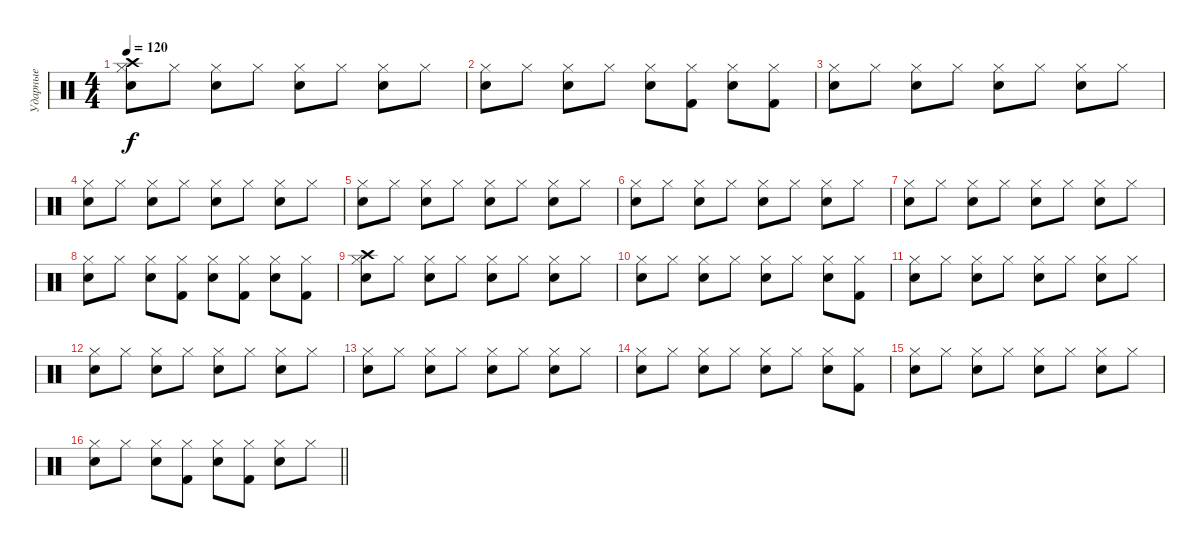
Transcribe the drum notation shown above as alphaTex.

\track ("Ударные" "Ударные") {instrument percussion}
\staff {score}
\articulation defaults
\ts (4 4)
\tempo 120
\clef neutral
\ks c
("Hi-Hat (closed)" "Crash high (hit)" "Snare (hit) 2").8{dy f} "Hi-Hat (closed)".8 ("Hi-Hat (closed)" "Snare (hit) 2").8 "Hi-Hat (closed)".8 ("Hi-Hat (closed)" "Snare (hit) 2").8 "Hi-Hat (closed)".8 ("Hi-Hat (closed)" "Snare (hit) 2").8 "Hi-Hat (closed)".8 |
("Hi-Hat (closed)" "Snare (hit) 2").8 "Hi-Hat (closed)".8 ("Hi-Hat (closed)" "Snare (hit) 2").8 "Hi-Hat (closed)".8 ("Hi-Hat (closed)" "Snare (hit) 2").8 ("Hi-Hat (closed)" "Kick (hit) 2").8 ("Hi-Hat (closed)" "Snare (hit) 2").8 ("Hi-Hat (closed)" "Kick (hit) 2").8 |
("Hi-Hat (closed)" "Snare (hit) 2").8 "Hi-Hat (closed)".8 ("Hi-Hat (closed)" "Snare (hit) 2").8 "Hi-Hat (closed)".8 ("Hi-Hat (closed)" "Snare (hit) 2").8 "Hi-Hat (closed)".8 ("Hi-Hat (closed)" "Snare (hit) 2").8 "Hi-Hat (closed)".8 |
("Hi-Hat (closed)" "Snare (hit) 2").8 "Hi-Hat (closed)".8 ("Hi-Hat (closed)" "Snare (hit) 2").8 "Hi-Hat (closed)".8 ("Hi-Hat (closed)" "Snare (hit) 2").8 "Hi-Hat (closed)".8 ("Hi-Hat (closed)" "Snare (hit) 2").8 "Hi-Hat (closed)".8 |
("Hi-Hat (closed)" "Snare (hit) 2").8 "Hi-Hat (closed)".8 ("Hi-Hat (closed)" "Snare (hit) 2").8 "Hi-Hat (closed)".8 ("Hi-Hat (closed)" "Snare (hit) 2").8 "Hi-Hat (closed)".8 ("Hi-Hat (closed)" "Snare (hit) 2").8 "Hi-Hat (closed)".8 |
("Hi-Hat (closed)" "Snare (hit) 2").8 "Hi-Hat (closed)".8 ("Hi-Hat (closed)" "Snare (hit) 2").8 "Hi-Hat (closed)".8 ("Hi-Hat (closed)" "Snare (hit) 2").8 "Hi-Hat (closed)".8 ("Hi-Hat (closed)" "Snare (hit) 2").8 "Hi-Hat (closed)".8 |
("Hi-Hat (closed)" "Snare (hit) 2").8 "Hi-Hat (closed)".8 ("Hi-Hat (closed)" "Snare (hit) 2").8 "Hi-Hat (closed)".8 ("Hi-Hat (closed)" "Snare (hit) 2").8 "Hi-Hat (closed)".8 ("Hi-Hat (closed)" "Snare (hit) 2").8 "Hi-Hat (closed)".8 |
("Hi-Hat (closed)" "Snare (hit) 2").8 "Hi-Hat (closed)".8 ("Hi-Hat (closed)" "Snare (hit) 2").8 ("Hi-Hat (closed)" "Kick (hit) 2").8 ("Hi-Hat (closed)" "Snare (hit) 2").8 ("Hi-Hat (closed)" "Kick (hit) 2").8 ("Hi-Hat (closed)" "Snare (hit) 2").8 ("Hi-Hat (closed)" "Kick (hit) 2").8 |
("Hi-Hat (closed)" "Crash high (hit)" "Snare (hit) 2").8 "Hi-Hat (closed)".8 ("Hi-Hat (closed)" "Snare (hit) 2").8 "Hi-Hat (closed)".8 ("Hi-Hat (closed)" "Snare (hit) 2").8 "Hi-Hat (closed)".8 ("Hi-Hat (closed)" "Snare (hit) 2").8 "Hi-Hat (closed)".8 |
("Hi-Hat (closed)" "Snare (hit) 2").8 "Hi-Hat (closed)".8 ("Hi-Hat (closed)" "Snare (hit) 2").8 "Hi-Hat (closed)".8 ("Hi-Hat (closed)" "Snare (hit) 2").8 "Hi-Hat (closed)".8 ("Hi-Hat (closed)" "Snare (hit) 2").8 ("Hi-Hat (closed)" "Kick (hit) 2").8 |
("Hi-Hat (closed)" "Snare (hit) 2").8 "Hi-Hat (closed)".8 ("Hi-Hat (closed)" "Snare (hit) 2").8 "Hi-Hat (closed)".8 ("Hi-Hat (closed)" "Snare (hit) 2").8 "Hi-Hat (closed)".8 ("Hi-Hat (closed)" "Snare (hit) 2").8 "Hi-Hat (closed)".8 |
("Hi-Hat (closed)" "Snare (hit) 2").8 "Hi-Hat (closed)".8 ("Hi-Hat (closed)" "Snare (hit) 2").8 "Hi-Hat (closed)".8 ("Hi-Hat (closed)" "Snare (hit) 2").8 "Hi-Hat (closed)".8 ("Hi-Hat (closed)" "Snare (hit) 2").8 "Hi-Hat (closed)".8 |
("Hi-Hat (closed)" "Snare (hit) 2").8 "Hi-Hat (closed)".8 ("Hi-Hat (closed)" "Snare (hit) 2").8 "Hi-Hat (closed)".8 ("Hi-Hat (closed)" "Snare (hit) 2").8 "Hi-Hat (closed)".8 ("Hi-Hat (closed)" "Snare (hit) 2").8 "Hi-Hat (closed)".8 |
("Hi-Hat (closed)" "Snare (hit) 2").8 "Hi-Hat (closed)".8 ("Hi-Hat (closed)" "Snare (hit) 2").8 "Hi-Hat (closed)".8 ("Hi-Hat (closed)" "Snare (hit) 2").8 "Hi-Hat (closed)".8 ("Hi-Hat (closed)" "Snare (hit) 2").8 ("Hi-Hat (closed)" "Kick (hit) 2").8 |
("Hi-Hat (closed)" "Snare (hit) 2").8 "Hi-Hat (closed)".8 ("Hi-Hat (closed)" "Snare (hit) 2").8 "Hi-Hat (closed)".8 ("Hi-Hat (closed)" "Snare (hit) 2").8 "Hi-Hat (closed)".8 ("Hi-Hat (closed)" "Snare (hit) 2").8 "Hi-Hat (closed)".8 |
\barLineRight lightlight
("Hi-Hat (closed)" "Snare (hit) 2").8 "Hi-Hat (closed)".8 ("Hi-Hat (closed)" "Snare (hit) 2").8 ("Hi-Hat (closed)" "Kick (hit) 2").8 ("Hi-Hat (closed)" "Snare (hit) 2").8 ("Hi-Hat (closed)" "Kick (hit) 2").8 ("Hi-Hat (closed)" "Snare (hit) 2").8 "Hi-Hat (closed)".8
